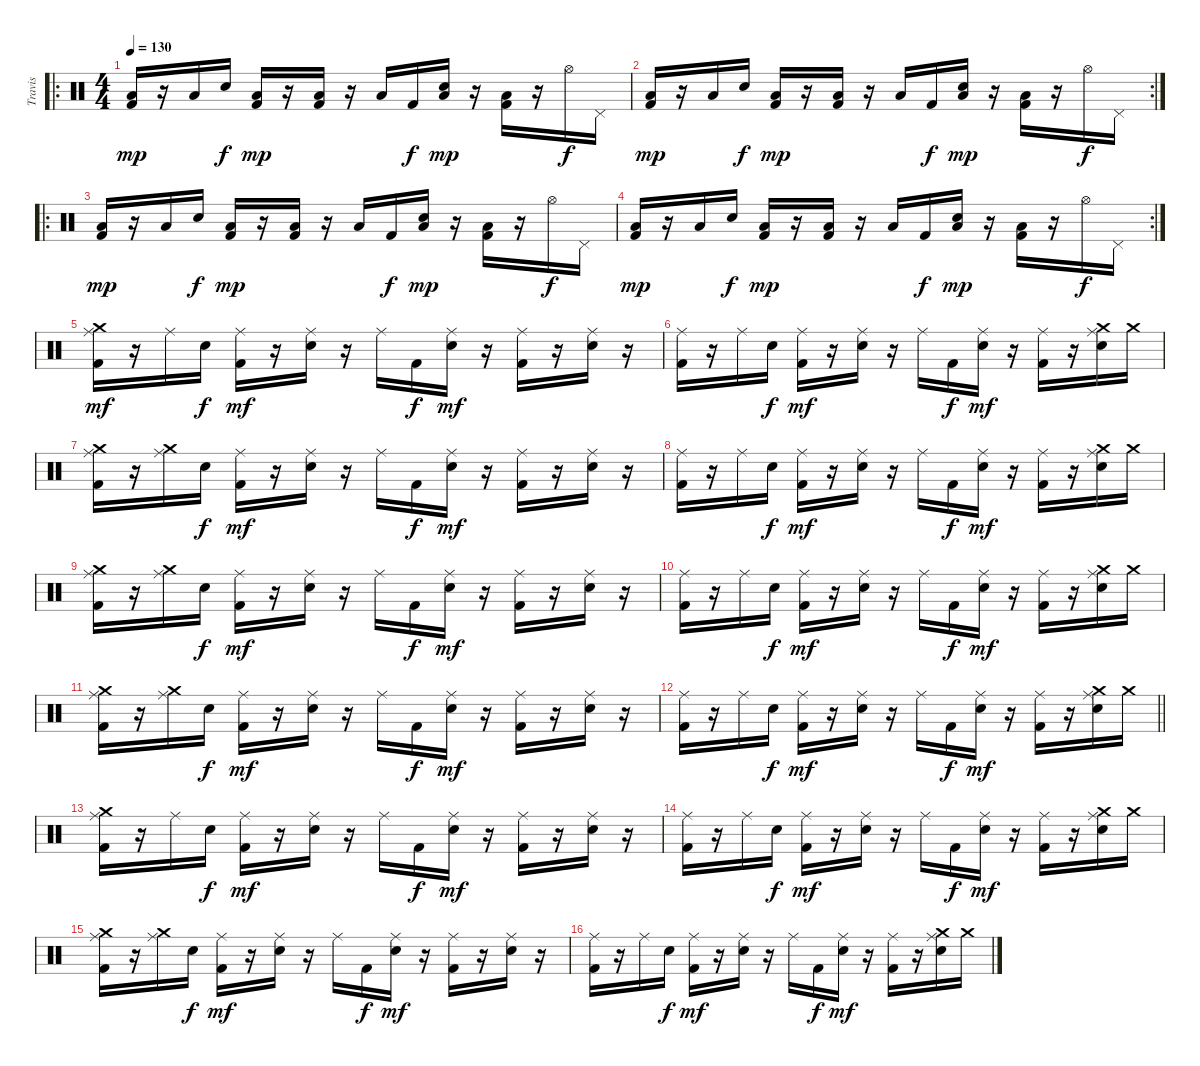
\track ("Travis" "Travis") {instrument percussion}
\staff {score}
\articulation defaults
\ro
\ts (4 4)
\tempo 130
\clef neutral
\ks c
("Low Floor Tom (hit)" "Kick (hit) 2").16{dy mp} r.16 "Low Floor Tom (hit)".16 "Electric Snare (hit)".16{dy f} ("Low Floor Tom (hit)" "Kick (hit) 2").16{dy mp} r.16 ("Low Floor Tom (hit)" "Kick (hit) 2").16 r.16 "Low Floor Tom (hit)".16 "Kick (hit) 2".16{dy f} ("Low Floor Tom (hit)" "Electric Snare (hit)").16{dy mp} r.16 ("Low Floor Tom (hit)" "Kick (hit) 2").16 r.16 "Hi-Hat (open)".16{dy f} "Pedal Hi-Hat (hit)".16 |
\rc 2
("Low Floor Tom (hit)" "Kick (hit) 2").16{dy mp} r.16 "Low Floor Tom (hit)".16 "Electric Snare (hit)".16{dy f} ("Low Floor Tom (hit)" "Kick (hit) 2").16{dy mp} r.16 ("Low Floor Tom (hit)" "Kick (hit) 2").16 r.16 "Low Floor Tom (hit)".16 "Kick (hit) 2".16{dy f} ("Low Floor Tom (hit)" "Electric Snare (hit)").16{dy mp} r.16 ("Low Floor Tom (hit)" "Kick (hit) 2").16 r.16 "Hi-Hat (open)".16{dy f} "Pedal Hi-Hat (hit)".16 |
\ro
("Low Floor Tom (hit)" "Kick (hit) 2").16{dy mp} r.16 "Low Floor Tom (hit)".16 "Electric Snare (hit)".16{dy f} ("Low Floor Tom (hit)" "Kick (hit) 2").16{dy mp} r.16 ("Low Floor Tom (hit)" "Kick (hit) 2").16 r.16 "Low Floor Tom (hit)".16 "Kick (hit) 2".16{dy f} ("Low Floor Tom (hit)" "Electric Snare (hit)").16{dy mp} r.16 ("Low Floor Tom (hit)" "Kick (hit) 2").16 r.16 "Hi-Hat (open)".16{dy f} "Pedal Hi-Hat (hit)".16 |
\rc 2
("Low Floor Tom (hit)" "Kick (hit) 2").16{dy mp} r.16 "Low Floor Tom (hit)".16 "Electric Snare (hit)".16{dy f} ("Low Floor Tom (hit)" "Kick (hit) 2").16{dy mp} r.16 ("Low Floor Tom (hit)" "Kick (hit) 2").16 r.16 "Low Floor Tom (hit)".16 "Kick (hit) 2".16{dy f} ("Low Floor Tom (hit)" "Electric Snare (hit)").16{dy mp} r.16 ("Low Floor Tom (hit)" "Kick (hit) 2").16 r.16 "Hi-Hat (open)".16{dy f} "Pedal Hi-Hat (hit)".16 |
("Crash medium (hit)" "Ride (middle)" "Kick (hit) 2").16{dy mf} r.16 "Ride (middle)".16 "Electric Snare (hit)".16{dy f} ("Ride (middle)" "Kick (hit) 2").16{dy mf} r.16 ("Ride (middle)" "Electric Snare (hit)").16 r.16 "Ride (middle)".16 "Kick (hit) 2".16{dy f} ("Ride (middle)" "Electric Snare (hit)").16{dy mf} r.16 ("Ride (middle)" "Kick (hit) 2").16 r.16 ("Ride (middle)" "Electric Snare (hit)").16 r.16 |
("Ride (middle)" "Kick (hit) 2").16 r.16 "Ride (middle)".16 "Electric Snare (hit)".16{dy f} ("Ride (middle)" "Kick (hit) 2").16{dy mf} r.16 ("Ride (middle)" "Electric Snare (hit)").16 r.16 "Ride (middle)".16 "Kick (hit) 2".16{dy f} ("Ride (middle)" "Electric Snare (hit)").16{dy mf} r.16 ("Ride (middle)" "Kick (hit) 2").16 r.16 ("Crash medium (hit)" "Ride (middle)" "Electric Snare (hit)").16 "Crash medium (hit)".16 |
("Crash medium (hit)" "Ride (middle)" "Kick (hit) 2").16 r.16 ("Crash medium (hit)" "Ride (middle)").16 "Electric Snare (hit)".16{dy f} ("Ride (middle)" "Kick (hit) 2").16{dy mf} r.16 ("Ride (middle)" "Electric Snare (hit)").16 r.16 "Ride (middle)".16 "Kick (hit) 2".16{dy f} ("Ride (middle)" "Electric Snare (hit)").16{dy mf} r.16 ("Ride (middle)" "Kick (hit) 2").16 r.16 ("Ride (middle)" "Electric Snare (hit)").16 r.16 |
("Ride (middle)" "Kick (hit) 2").16 r.16 "Ride (middle)".16 "Electric Snare (hit)".16{dy f} ("Ride (middle)" "Kick (hit) 2").16{dy mf} r.16 ("Ride (middle)" "Electric Snare (hit)").16 r.16 "Ride (middle)".16 "Kick (hit) 2".16{dy f} ("Ride (middle)" "Electric Snare (hit)").16{dy mf} r.16 ("Ride (middle)" "Kick (hit) 2").16 r.16 ("Crash medium (hit)" "Ride (middle)" "Electric Snare (hit)").16 "Crash medium (hit)".16 |
("Crash medium (hit)" "Ride (middle)" "Kick (hit) 2").16 r.16 ("Crash medium (hit)" "Ride (middle)").16 "Electric Snare (hit)".16{dy f} ("Ride (middle)" "Kick (hit) 2").16{dy mf} r.16 ("Ride (middle)" "Electric Snare (hit)").16 r.16 "Ride (middle)".16 "Kick (hit) 2".16{dy f} ("Ride (middle)" "Electric Snare (hit)").16{dy mf} r.16 ("Ride (middle)" "Kick (hit) 2").16 r.16 ("Ride (middle)" "Electric Snare (hit)").16 r.16 |
("Ride (middle)" "Kick (hit) 2").16 r.16 "Ride (middle)".16 "Electric Snare (hit)".16{dy f} ("Ride (middle)" "Kick (hit) 2").16{dy mf} r.16 ("Ride (middle)" "Electric Snare (hit)").16 r.16 "Ride (middle)".16 "Kick (hit) 2".16{dy f} ("Ride (middle)" "Electric Snare (hit)").16{dy mf} r.16 ("Ride (middle)" "Kick (hit) 2").16 r.16 ("Crash medium (hit)" "Ride (middle)" "Electric Snare (hit)").16 "Crash medium (hit)".16 |
("Crash medium (hit)" "Ride (middle)" "Kick (hit) 2").16 r.16 ("Crash medium (hit)" "Ride (middle)").16 "Electric Snare (hit)".16{dy f} ("Ride (middle)" "Kick (hit) 2").16{dy mf} r.16 ("Ride (middle)" "Electric Snare (hit)").16 r.16 "Ride (middle)".16 "Kick (hit) 2".16{dy f} ("Ride (middle)" "Electric Snare (hit)").16{dy mf} r.16 ("Ride (middle)" "Kick (hit) 2").16 r.16 ("Ride (middle)" "Electric Snare (hit)").16 r.16 |
\barLineRight lightlight
("Ride (middle)" "Kick (hit) 2").16 r.16 "Ride (middle)".16 "Electric Snare (hit)".16{dy f} ("Ride (middle)" "Kick (hit) 2").16{dy mf} r.16 ("Ride (middle)" "Electric Snare (hit)").16 r.16 "Ride (middle)".16 "Kick (hit) 2".16{dy f} ("Ride (middle)" "Electric Snare (hit)").16{dy mf} r.16 ("Ride (middle)" "Kick (hit) 2").16 r.16 ("Crash medium (hit)" "Ride (middle)" "Electric Snare (hit)").16 "Crash medium (hit)".16 |
("Crash medium (hit)" "Ride (middle)" "Kick (hit) 2").16 r.16 "Ride (middle)".16 "Electric Snare (hit)".16{dy f} ("Ride (middle)" "Kick (hit) 2").16{dy mf} r.16 ("Ride (middle)" "Electric Snare (hit)").16 r.16 "Ride (middle)".16 "Kick (hit) 2".16{dy f} ("Ride (middle)" "Electric Snare (hit)").16{dy mf} r.16 ("Ride (middle)" "Kick (hit) 2").16 r.16 ("Ride (middle)" "Electric Snare (hit)").16 r.16 |
("Ride (middle)" "Kick (hit) 2").16 r.16 "Ride (middle)".16 "Electric Snare (hit)".16{dy f} ("Ride (middle)" "Kick (hit) 2").16{dy mf} r.16 ("Ride (middle)" "Electric Snare (hit)").16 r.16 "Ride (middle)".16 "Kick (hit) 2".16{dy f} ("Ride (middle)" "Electric Snare (hit)").16{dy mf} r.16 ("Ride (middle)" "Kick (hit) 2").16 r.16 ("Crash medium (hit)" "Ride (middle)" "Electric Snare (hit)").16 "Crash medium (hit)".16 |
("Crash medium (hit)" "Ride (middle)" "Kick (hit) 2").16 r.16 ("Crash medium (hit)" "Ride (middle)").16 "Electric Snare (hit)".16{dy f} ("Ride (middle)" "Kick (hit) 2").16{dy mf} r.16 ("Ride (middle)" "Electric Snare (hit)").16 r.16 "Ride (middle)".16 "Kick (hit) 2".16{dy f} ("Ride (middle)" "Electric Snare (hit)").16{dy mf} r.16 ("Ride (middle)" "Kick (hit) 2").16 r.16 ("Ride (middle)" "Electric Snare (hit)").16 r.16 |
("Ride (middle)" "Kick (hit) 2").16 r.16 "Ride (middle)".16 "Electric Snare (hit)".16{dy f} ("Ride (middle)" "Kick (hit) 2").16{dy mf} r.16 ("Ride (middle)" "Electric Snare (hit)").16 r.16 "Ride (middle)".16 "Kick (hit) 2".16{dy f} ("Ride (middle)" "Electric Snare (hit)").16{dy mf} r.16 ("Ride (middle)" "Kick (hit) 2").16 r.16 ("Crash medium (hit)" "Ride (middle)" "Electric Snare (hit)").16 "Crash medium (hit)".16
